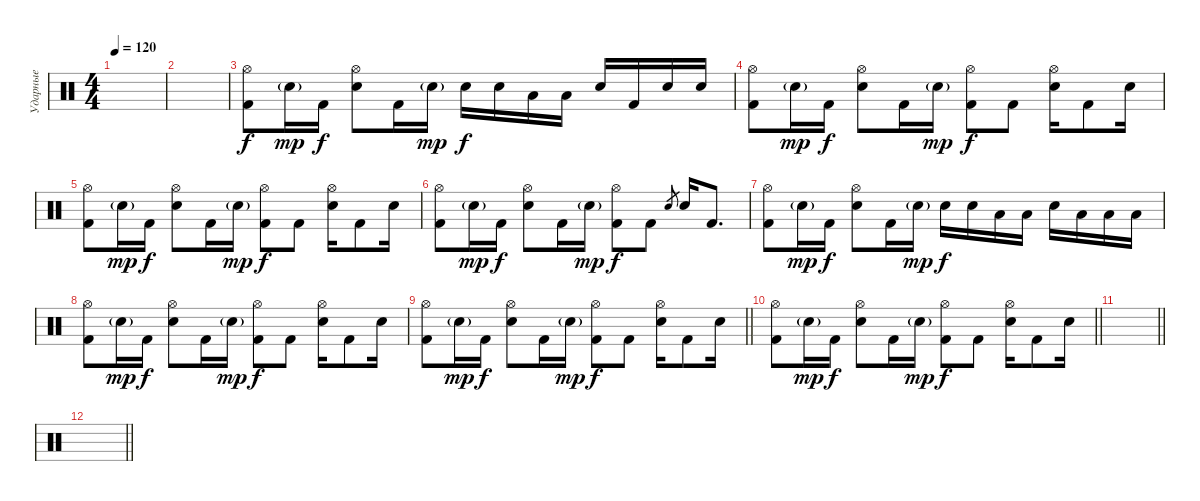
\track ("Ударные" "Ударные") {instrument percussion}
\staff {score}
\articulation defaults
\ts (4 4)
\tempo 120
\clef neutral
\ks c
|
|
("Hi-Hat (open)" "Kick (hit) 2").8 "Snare (hit) 2"{g}.16{dy mp} "Kick (hit) 2".16{dy f} ("Hi-Hat (open)" "Snare (hit) 2").8 "Kick (hit) 2".16 "Snare (hit) 2"{g}.16{dy mp} "Snare (hit) 2".16{dy f} "Snare (hit) 2".16 "Low Tom (hit)".16 "Low Floor Tom (hit)".16 "Snare (hit) 2".16 "Kick (hit) 2".16 "Snare (hit) 2".16 "Snare (hit) 2".16 |
("Hi-Hat (open)" "Kick (hit) 2").8 "Snare (hit) 2"{g}.16{dy mp} "Kick (hit) 2".16{dy f} ("Hi-Hat (open)" "Snare (hit) 2").8 "Kick (hit) 2".16 "Snare (hit) 2"{g}.16{dy mp} ("Hi-Hat (open)" "Kick (hit) 2").8{dy f} "Kick (hit) 2".8 ("Hi-Hat (open)" "Snare (hit) 2").16 "Kick (hit) 2".8 "Snare (hit) 2".16 |
("Hi-Hat (open)" "Kick (hit) 2").8 "Snare (hit) 2"{g}.16{dy mp} "Kick (hit) 2".16{dy f} ("Hi-Hat (open)" "Snare (hit) 2").8 "Kick (hit) 2".16 "Snare (hit) 2"{g}.16{dy mp} ("Hi-Hat (open)" "Kick (hit) 2").8{dy f} "Kick (hit) 2".8 ("Hi-Hat (open)" "Snare (hit) 2").16 "Kick (hit) 2".8 "Snare (hit) 2".16 |
("Hi-Hat (open)" "Kick (hit) 2").8 "Snare (hit) 2"{g}.16{dy mp} "Kick (hit) 2".16{dy f} ("Hi-Hat (open)" "Snare (hit) 2").8 "Kick (hit) 2".16 "Snare (hit) 2"{g}.16{dy mp} ("Hi-Hat (open)" "Kick (hit) 2").8{dy f} "Kick (hit) 2".8 "Snare (hit) 2".8{gr} "Snare (hit) 2".16 "Kick (hit) 2".8{d} |
("Hi-Hat (open)" "Kick (hit) 2").8 "Snare (hit) 2"{g}.16{dy mp} "Kick (hit) 2".16{dy f} ("Hi-Hat (open)" "Snare (hit) 2").8 "Kick (hit) 2".16 "Snare (hit) 2"{g}.16{dy mp} "Snare (hit) 2".16{dy f} "Snare (hit) 2".16 "Low Tom (hit)".16 "Low Floor Tom (hit)".16 "Snare (hit) 2".16 "Low Tom (hit)".16 "Low Tom (hit)".16 "Low Floor Tom (hit)".16 |
("Hi-Hat (open)" "Kick (hit) 2").8 "Snare (hit) 2"{g}.16{dy mp} "Kick (hit) 2".16{dy f} ("Hi-Hat (open)" "Snare (hit) 2").8 "Kick (hit) 2".16 "Snare (hit) 2"{g}.16{dy mp} ("Hi-Hat (open)" "Kick (hit) 2").8{dy f} "Kick (hit) 2".8 ("Hi-Hat (open)" "Snare (hit) 2").16 "Kick (hit) 2".8 "Snare (hit) 2".16 |
\barLineRight lightlight
("Hi-Hat (open)" "Kick (hit) 2").8 "Snare (hit) 2"{g}.16{dy mp} "Kick (hit) 2".16{dy f} ("Hi-Hat (open)" "Snare (hit) 2").8 "Kick (hit) 2".16 "Snare (hit) 2"{g}.16{dy mp} ("Hi-Hat (open)" "Kick (hit) 2").8{dy f} "Kick (hit) 2".8 ("Hi-Hat (open)" "Snare (hit) 2").16 "Kick (hit) 2".8 "Snare (hit) 2".16 |
\barLineRight lightlight
("Hi-Hat (open)" "Kick (hit) 2").8 "Snare (hit) 2"{g}.16{dy mp} "Kick (hit) 2".16{dy f} ("Hi-Hat (open)" "Snare (hit) 2").8 "Kick (hit) 2".16 "Snare (hit) 2"{g}.16{dy mp} ("Hi-Hat (open)" "Kick (hit) 2").8{dy f} "Kick (hit) 2".8 ("Hi-Hat (open)" "Snare (hit) 2").16 "Kick (hit) 2".8 "Snare (hit) 2".16 |
\barLineRight lightlight
|
\barLineRight lightlight
